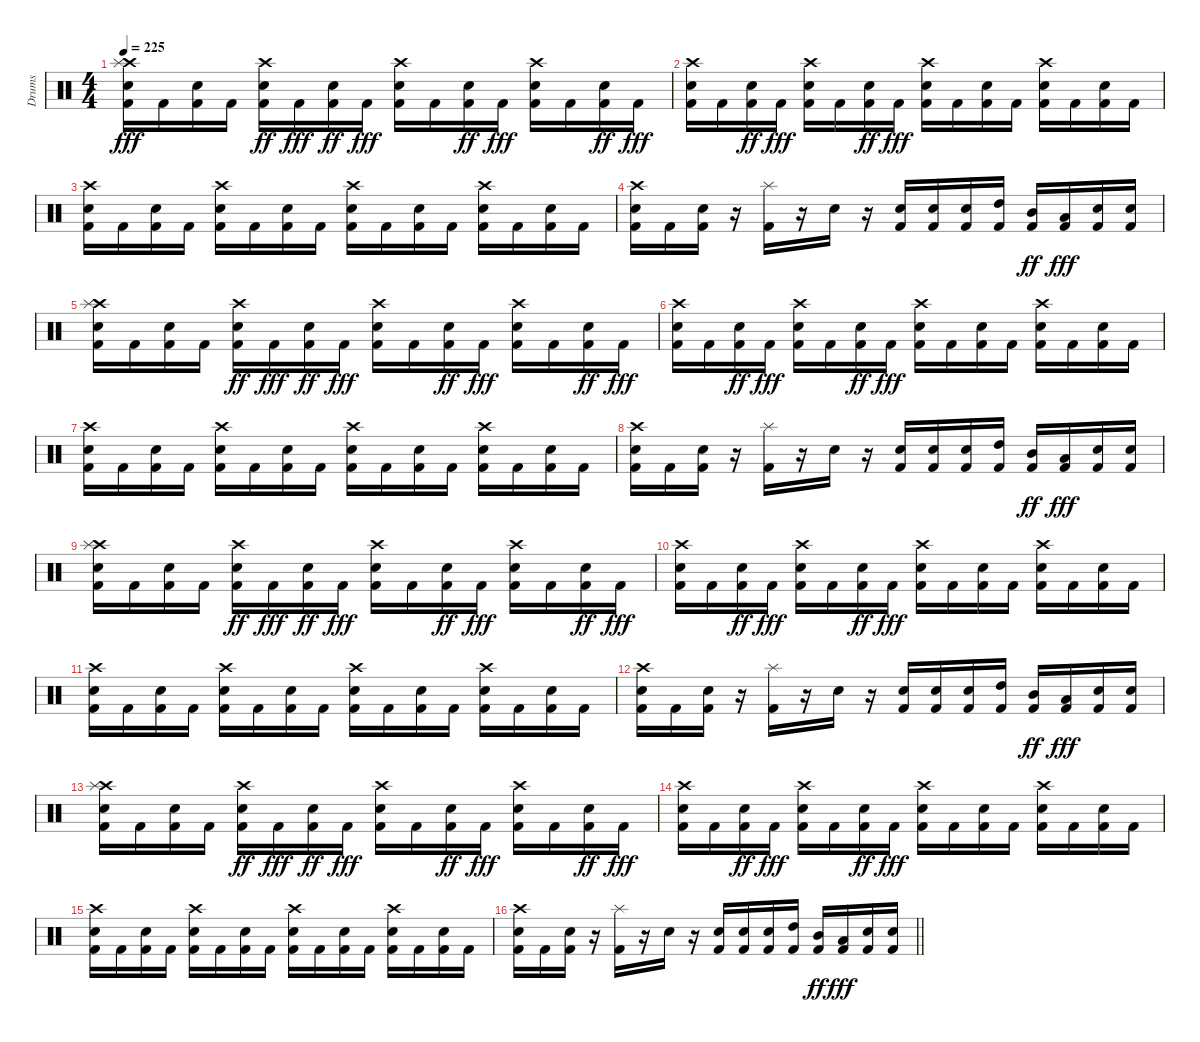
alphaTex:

\track ("Drums" "Drums") {instrument percussion}
\staff {score}
\articulation defaults
\ts (4 4)
\tempo 225
\clef neutral
\ks c
("Kick (hit) 2" "Snare (hit) 2" "Crash high (hit)" "Splash (hit)").16{dy fff} "Kick (hit) 2".16 ("Snare (hit) 2" "Kick (hit) 2").16 "Kick (hit) 2".16 ("Crash high (hit)" "Kick (hit) 2" "Snare (hit) 2").16{dy ff} "Kick (hit) 2".16{dy fff} ("Kick (hit) 2" "Snare (hit) 2").16{dy ff} "Kick (hit) 2".16{dy fff} ("Kick (hit) 2" "Snare (hit) 2" "Crash high (hit)").16 "Kick (hit) 2".16 ("Kick (hit) 2" "Snare (hit) 2").16{dy ff} "Kick (hit) 2".16{dy fff} ("Kick (hit) 2" "Snare (hit) 2" "Crash high (hit)").16 "Kick (hit) 2".16 ("Kick (hit) 2" "Snare (hit) 2").16{dy ff} "Kick (hit) 2".16{dy fff} |
("Kick (hit) 2" "Snare (hit) 2" "Crash high (hit)").16 "Kick (hit) 2".16 ("Kick (hit) 2" "Snare (hit) 2").16{dy ff} "Kick (hit) 2".16{dy fff} ("Kick (hit) 2" "Snare (hit) 2" "Crash high (hit)").16 "Kick (hit) 2".16 ("Kick (hit) 2" "Snare (hit) 2").16{dy ff} "Kick (hit) 2".16{dy fff} ("Kick (hit) 2" "Snare (hit) 2" "Crash high (hit)").16 "Kick (hit) 2".16 ("Snare (hit) 2" "Kick (hit) 2").16 "Kick (hit) 2".16 ("Crash high (hit)" "Kick (hit) 2" "Snare (hit) 2").16 "Kick (hit) 2".16 ("Snare (hit) 2" "Kick (hit) 2").16 "Kick (hit) 2".16 |
("Kick (hit) 2" "Snare (hit) 2" "Crash high (hit)").16 "Kick (hit) 2".16 ("Kick (hit) 2" "Snare (hit) 2").16 "Kick (hit) 2".16 ("Kick (hit) 2" "Snare (hit) 2" "Crash high (hit)").16 "Kick (hit) 2".16 ("Kick (hit) 2" "Snare (hit) 2").16 "Kick (hit) 2".16 ("Kick (hit) 2" "Snare (hit) 2" "Crash high (hit)").16 "Kick (hit) 2".16 ("Kick (hit) 2" "Snare (hit) 2").16 "Kick (hit) 2".16 ("Kick (hit) 2" "Snare (hit) 2" "Crash high (hit)").16 "Kick (hit) 2".16 ("Kick (hit) 2" "Snare (hit) 2").16 "Kick (hit) 2".16 |
("Kick (hit) 2" "Snare (hit) 2" "Crash high (hit)").16 "Kick (hit) 2".16 ("Kick (hit) 2" "Snare (hit) 2").16 r.16 ("Kick (hit) 2" "Splash (hit)").16 r.16 "Snare (hit) 2".16 r.16 ("Kick (hit) 2" "Snare (hit) 2").16 ("Snare (hit) 2" "Kick (hit) 2").16 ("Snare (hit) 2" "Kick (hit) 2").16 ("High Tom (hit)" "Kick (hit) 2").16 ("Mid Tom (hit)" "Kick (hit) 2").16{dy ff} ("Low Tom (hit)" "Kick (hit) 2").16{dy fff} ("Kick (hit) 2" "Snare (hit) 2").16 ("Kick (hit) 2" "Snare (hit) 2").16 |
("Kick (hit) 2" "Snare (hit) 2" "Crash high (hit)" "Splash (hit)").16 "Kick (hit) 2".16 ("Snare (hit) 2" "Kick (hit) 2").16 "Kick (hit) 2".16 ("Crash high (hit)" "Kick (hit) 2" "Snare (hit) 2").16{dy ff} "Kick (hit) 2".16{dy fff} ("Kick (hit) 2" "Snare (hit) 2").16{dy ff} "Kick (hit) 2".16{dy fff} ("Kick (hit) 2" "Snare (hit) 2" "Crash high (hit)").16 "Kick (hit) 2".16 ("Kick (hit) 2" "Snare (hit) 2").16{dy ff} "Kick (hit) 2".16{dy fff} ("Kick (hit) 2" "Snare (hit) 2" "Crash high (hit)").16 "Kick (hit) 2".16 ("Kick (hit) 2" "Snare (hit) 2").16{dy ff} "Kick (hit) 2".16{dy fff} |
("Kick (hit) 2" "Snare (hit) 2" "Crash high (hit)").16 "Kick (hit) 2".16 ("Kick (hit) 2" "Snare (hit) 2").16{dy ff} "Kick (hit) 2".16{dy fff} ("Kick (hit) 2" "Snare (hit) 2" "Crash high (hit)").16 "Kick (hit) 2".16 ("Kick (hit) 2" "Snare (hit) 2").16{dy ff} "Kick (hit) 2".16{dy fff} ("Kick (hit) 2" "Snare (hit) 2" "Crash high (hit)").16 "Kick (hit) 2".16 ("Snare (hit) 2" "Kick (hit) 2").16 "Kick (hit) 2".16 ("Crash high (hit)" "Kick (hit) 2" "Snare (hit) 2").16 "Kick (hit) 2".16 ("Snare (hit) 2" "Kick (hit) 2").16 "Kick (hit) 2".16 |
("Kick (hit) 2" "Snare (hit) 2" "Crash high (hit)").16 "Kick (hit) 2".16 ("Kick (hit) 2" "Snare (hit) 2").16 "Kick (hit) 2".16 ("Kick (hit) 2" "Snare (hit) 2" "Crash high (hit)").16 "Kick (hit) 2".16 ("Kick (hit) 2" "Snare (hit) 2").16 "Kick (hit) 2".16 ("Kick (hit) 2" "Snare (hit) 2" "Crash high (hit)").16 "Kick (hit) 2".16 ("Kick (hit) 2" "Snare (hit) 2").16 "Kick (hit) 2".16 ("Kick (hit) 2" "Snare (hit) 2" "Crash high (hit)").16 "Kick (hit) 2".16 ("Kick (hit) 2" "Snare (hit) 2").16 "Kick (hit) 2".16 |
("Kick (hit) 2" "Snare (hit) 2" "Crash high (hit)").16 "Kick (hit) 2".16 ("Kick (hit) 2" "Snare (hit) 2").16 r.16 ("Kick (hit) 2" "Splash (hit)").16 r.16 "Snare (hit) 2".16 r.16 ("Kick (hit) 2" "Snare (hit) 2").16 ("Snare (hit) 2" "Kick (hit) 2").16 ("Snare (hit) 2" "Kick (hit) 2").16 ("High Tom (hit)" "Kick (hit) 2").16 ("Mid Tom (hit)" "Kick (hit) 2").16{dy ff} ("Low Tom (hit)" "Kick (hit) 2").16{dy fff} ("Kick (hit) 2" "Snare (hit) 2").16 ("Kick (hit) 2" "Snare (hit) 2").16 |
("Kick (hit) 2" "Snare (hit) 2" "Crash high (hit)" "Splash (hit)").16 "Kick (hit) 2".16 ("Snare (hit) 2" "Kick (hit) 2").16 "Kick (hit) 2".16 ("Crash high (hit)" "Kick (hit) 2" "Snare (hit) 2").16{dy ff} "Kick (hit) 2".16{dy fff} ("Kick (hit) 2" "Snare (hit) 2").16{dy ff} "Kick (hit) 2".16{dy fff} ("Kick (hit) 2" "Snare (hit) 2" "Crash high (hit)").16 "Kick (hit) 2".16 ("Kick (hit) 2" "Snare (hit) 2").16{dy ff} "Kick (hit) 2".16{dy fff} ("Kick (hit) 2" "Snare (hit) 2" "Crash high (hit)").16 "Kick (hit) 2".16 ("Kick (hit) 2" "Snare (hit) 2").16{dy ff} "Kick (hit) 2".16{dy fff} |
("Kick (hit) 2" "Snare (hit) 2" "Crash high (hit)").16 "Kick (hit) 2".16 ("Kick (hit) 2" "Snare (hit) 2").16{dy ff} "Kick (hit) 2".16{dy fff} ("Kick (hit) 2" "Snare (hit) 2" "Crash high (hit)").16 "Kick (hit) 2".16 ("Kick (hit) 2" "Snare (hit) 2").16{dy ff} "Kick (hit) 2".16{dy fff} ("Kick (hit) 2" "Snare (hit) 2" "Crash high (hit)").16 "Kick (hit) 2".16 ("Snare (hit) 2" "Kick (hit) 2").16 "Kick (hit) 2".16 ("Crash high (hit)" "Kick (hit) 2" "Snare (hit) 2").16 "Kick (hit) 2".16 ("Snare (hit) 2" "Kick (hit) 2").16 "Kick (hit) 2".16 |
("Kick (hit) 2" "Snare (hit) 2" "Crash high (hit)").16 "Kick (hit) 2".16 ("Kick (hit) 2" "Snare (hit) 2").16 "Kick (hit) 2".16 ("Kick (hit) 2" "Snare (hit) 2" "Crash high (hit)").16 "Kick (hit) 2".16 ("Kick (hit) 2" "Snare (hit) 2").16 "Kick (hit) 2".16 ("Kick (hit) 2" "Snare (hit) 2" "Crash high (hit)").16 "Kick (hit) 2".16 ("Kick (hit) 2" "Snare (hit) 2").16 "Kick (hit) 2".16 ("Kick (hit) 2" "Snare (hit) 2" "Crash high (hit)").16 "Kick (hit) 2".16 ("Kick (hit) 2" "Snare (hit) 2").16 "Kick (hit) 2".16 |
("Kick (hit) 2" "Snare (hit) 2" "Crash high (hit)").16 "Kick (hit) 2".16 ("Kick (hit) 2" "Snare (hit) 2").16 r.16 ("Kick (hit) 2" "Splash (hit)").16 r.16 "Snare (hit) 2".16 r.16 ("Kick (hit) 2" "Snare (hit) 2").16 ("Snare (hit) 2" "Kick (hit) 2").16 ("Snare (hit) 2" "Kick (hit) 2").16 ("High Tom (hit)" "Kick (hit) 2").16 ("Mid Tom (hit)" "Kick (hit) 2").16{dy ff} ("Low Tom (hit)" "Kick (hit) 2").16{dy fff} ("Kick (hit) 2" "Snare (hit) 2").16 ("Kick (hit) 2" "Snare (hit) 2").16 |
("Kick (hit) 2" "Snare (hit) 2" "Crash high (hit)" "Splash (hit)").16 "Kick (hit) 2".16 ("Snare (hit) 2" "Kick (hit) 2").16 "Kick (hit) 2".16 ("Crash high (hit)" "Kick (hit) 2" "Snare (hit) 2").16{dy ff} "Kick (hit) 2".16{dy fff} ("Kick (hit) 2" "Snare (hit) 2").16{dy ff} "Kick (hit) 2".16{dy fff} ("Kick (hit) 2" "Snare (hit) 2" "Crash high (hit)").16 "Kick (hit) 2".16 ("Kick (hit) 2" "Snare (hit) 2").16{dy ff} "Kick (hit) 2".16{dy fff} ("Kick (hit) 2" "Snare (hit) 2" "Crash high (hit)").16 "Kick (hit) 2".16 ("Kick (hit) 2" "Snare (hit) 2").16{dy ff} "Kick (hit) 2".16{dy fff} |
("Kick (hit) 2" "Snare (hit) 2" "Crash high (hit)").16 "Kick (hit) 2".16 ("Kick (hit) 2" "Snare (hit) 2").16{dy ff} "Kick (hit) 2".16{dy fff} ("Kick (hit) 2" "Snare (hit) 2" "Crash high (hit)").16 "Kick (hit) 2".16 ("Kick (hit) 2" "Snare (hit) 2").16{dy ff} "Kick (hit) 2".16{dy fff} ("Kick (hit) 2" "Snare (hit) 2" "Crash high (hit)").16 "Kick (hit) 2".16 ("Snare (hit) 2" "Kick (hit) 2").16 "Kick (hit) 2".16 ("Crash high (hit)" "Kick (hit) 2" "Snare (hit) 2").16 "Kick (hit) 2".16 ("Snare (hit) 2" "Kick (hit) 2").16 "Kick (hit) 2".16 |
("Kick (hit) 2" "Snare (hit) 2" "Crash high (hit)").16 "Kick (hit) 2".16 ("Kick (hit) 2" "Snare (hit) 2").16 "Kick (hit) 2".16 ("Kick (hit) 2" "Snare (hit) 2" "Crash high (hit)").16 "Kick (hit) 2".16 ("Kick (hit) 2" "Snare (hit) 2").16 "Kick (hit) 2".16 ("Kick (hit) 2" "Snare (hit) 2" "Crash high (hit)").16 "Kick (hit) 2".16 ("Kick (hit) 2" "Snare (hit) 2").16 "Kick (hit) 2".16 ("Kick (hit) 2" "Snare (hit) 2" "Crash high (hit)").16 "Kick (hit) 2".16 ("Kick (hit) 2" "Snare (hit) 2").16 "Kick (hit) 2".16 |
\barLineRight lightlight
("Kick (hit) 2" "Snare (hit) 2" "Crash high (hit)").16 "Kick (hit) 2".16 ("Kick (hit) 2" "Snare (hit) 2").16 r.16 ("Kick (hit) 2" "Splash (hit)").16 r.16 "Snare (hit) 2".16 r.16 ("Kick (hit) 2" "Snare (hit) 2").16 ("Snare (hit) 2" "Kick (hit) 2").16 ("Snare (hit) 2" "Kick (hit) 2").16 ("High Tom (hit)" "Kick (hit) 2").16 ("Mid Tom (hit)" "Kick (hit) 2").16{dy ff} ("Low Tom (hit)" "Kick (hit) 2").16{dy fff} ("Kick (hit) 2" "Snare (hit) 2").16 ("Kick (hit) 2" "Snare (hit) 2").16
